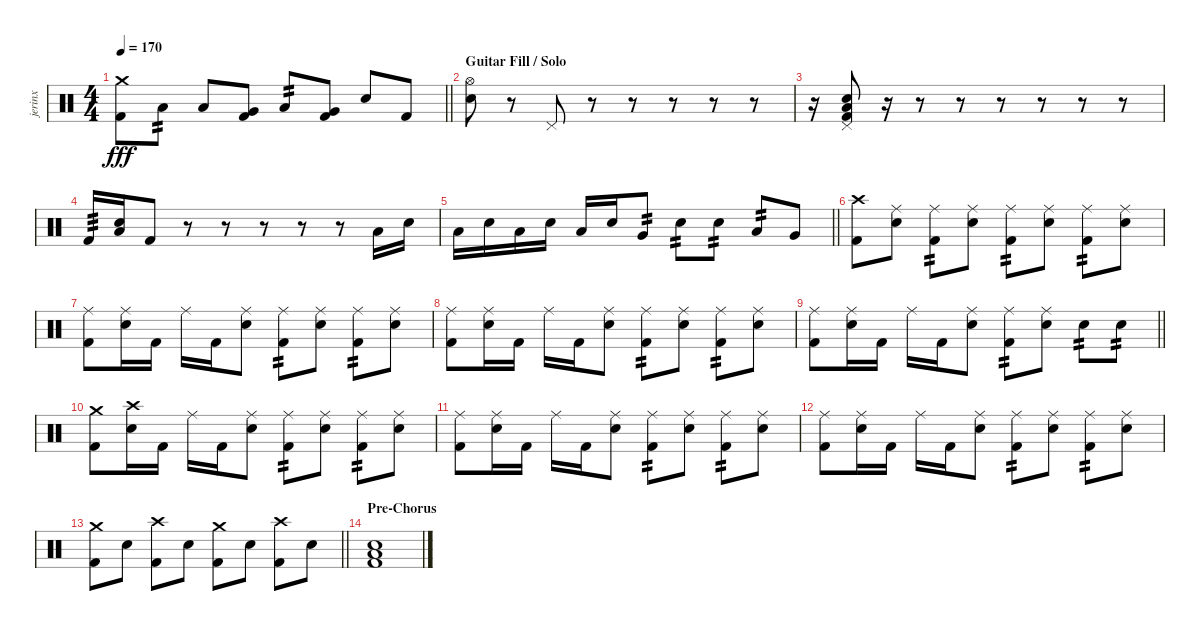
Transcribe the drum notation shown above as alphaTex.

\track ("jerinx" "jerinx") {instrument percussion}
\staff {score}
\articulation defaults
\ts (4 4)
\tempo 170
\clef neutral
\barLineRight lightlight
\ks c
("Kick (hit) 2" "Crash medium (hit)").8{dy fff} "Low Tom (hit)".8{tp 2} "Low Tom (hit)".8 ("Kick (hit) 2" "Very Low Tom (hit)").8 "Low Tom (hit)".8{tp 2} ("Kick (hit) 2" "Very Low Tom (hit)").8 "Snare (hit) 2".8 "Kick (hit) 2".8 |
\section ("" "Guitar Fill / Solo")
("Hi-Hat (open)" "Snare (hit) 2").8 r.8 "Pedal Hi-Hat (hit)".8 r.8 r.8 r.8 r.8 r.8 |
r.16 ("Pedal Hi-Hat (hit)" "Snare (hit) 2" "Kick (hit) 2" "Low Floor Tom (hit)").8 r.16 r.8 r.8 r.8 r.8 r.8 r.8 |
"Kick (hit) 2".16{tp 3} ("Snare (hit) 2" "Low Floor Tom (hit)").16 "Kick (hit) 2".8 r.8 r.8 r.8 r.8 r.8 "Low Tom (hit)".16 "Snare (hit) 2".16 |
\barLineRight lightlight "Low Tom (hit)".16 "Snare (hit) 2".16 "Low Tom (hit)".16 "Snare (hit) 2".16 "Low Tom (hit)".16 "Snare (hit) 2".16 "Very Low Tom (hit)".8{tp 2} "Snare (hit) 2".8{tp 2} "Snare (hit) 2".8{tp 2} "Low Tom (hit)".8{tp 2} "Very Low Tom (hit)".8
|
("Kick (hit) 2" "Crash high (hit)").8 ("Snare (hit) 2" "Ride (middle)").8 ("Kick (hit) 2" "Ride (middle)").8{tp 2} ("Snare (hit) 2" "Ride (middle)").8 ("Kick (hit) 2" "Ride (middle)").8{tp 2} ("Snare (hit) 2" "Ride (middle)").8 ("Kick (hit) 2" "Ride (middle)").8{tp 2} ("Snare (hit) 2" "Ride (middle)").8 |
("Kick (hit) 2" "Ride (middle)").8 ("Snare (hit) 2" "Ride (middle)").16 "Kick (hit) 2".16 "Ride (middle)".16 "Kick (hit) 2".16 ("Snare (hit) 2" "Ride (middle)").8 ("Kick (hit) 2" "Ride (middle)").8{tp 2} ("Snare (hit) 2" "Ride (middle)").8 ("Kick (hit) 2" "Ride (middle)").8{tp 2} ("Snare (hit) 2" "Ride (middle)").8 |
("Kick (hit) 2" "Ride (middle)").8 ("Snare (hit) 2" "Ride (middle)").16 "Kick (hit) 2".16 "Ride (middle)".16 "Kick (hit) 2".16 ("Snare (hit) 2" "Ride (middle)").8 ("Kick (hit) 2" "Ride (middle)").8{tp 2} ("Snare (hit) 2" "Ride (middle)").8 ("Kick (hit) 2" "Ride (middle)").8{tp 2} ("Snare (hit) 2" "Ride (middle)").8 |
\barLineRight lightlight
("Kick (hit) 2" "Ride (middle)").8 ("Snare (hit) 2" "Ride (middle)").16 "Kick (hit) 2".16 "Ride (middle)".16 "Kick (hit) 2".16 ("Snare (hit) 2" "Ride (middle)").8 ("Kick (hit) 2" "Ride (middle)").8{tp 2} ("Snare (hit) 2" "Ride (middle)").8 "Snare (hit) 2".8{tp 2} "Snare (hit) 2".8{tp 2} |
("Kick (hit) 2" "Crash medium (hit)").8 ("Snare (hit) 2" "Crash high (hit)").16 "Kick (hit) 2".16 "Ride (middle)".16 "Kick (hit) 2".16 ("Snare (hit) 2" "Ride (middle)").8 ("Kick (hit) 2" "Ride (middle)").8{tp 2} ("Snare (hit) 2" "Ride (middle)").8 ("Kick (hit) 2" "Ride (middle)").8{tp 2} ("Snare (hit) 2" "Ride (middle)").8 |
("Kick (hit) 2" "Ride (middle)").8 ("Snare (hit) 2" "Ride (middle)").16 "Kick (hit) 2".16 "Ride (middle)".16 "Kick (hit) 2".16 ("Snare (hit) 2" "Ride (middle)").8 ("Kick (hit) 2" "Ride (middle)").8{tp 2} ("Snare (hit) 2" "Ride (middle)").8 ("Kick (hit) 2" "Ride (middle)").8{tp 2} ("Snare (hit) 2" "Ride (middle)").8 |
("Kick (hit) 2" "Ride (middle)").8 ("Snare (hit) 2" "Ride (middle)").16 "Kick (hit) 2".16 "Ride (middle)".16 "Kick (hit) 2".16 ("Snare (hit) 2" "Ride (middle)").8 ("Kick (hit) 2" "Ride (middle)").8{tp 2} ("Snare (hit) 2" "Ride (middle)").8 ("Kick (hit) 2" "Ride (middle)").8{tp 2} ("Snare (hit) 2" "Ride (middle)").8 |
\barLineRight lightlight
("Kick (hit) 2" "Crash medium (hit)").8 "Snare (hit) 2".8 ("Kick (hit) 2" "Crash high (hit)").8 "Snare (hit) 2".8 ("Kick (hit) 2" "Crash medium (hit)").8 "Snare (hit) 2".8 ("Kick (hit) 2" "Crash high (hit)").8 "Snare (hit) 2".8 |
\section ("" "Pre-Chorus")
("Snare (hit) 2" "Kick (hit) 2" "Low Floor Tom (hit)").1
